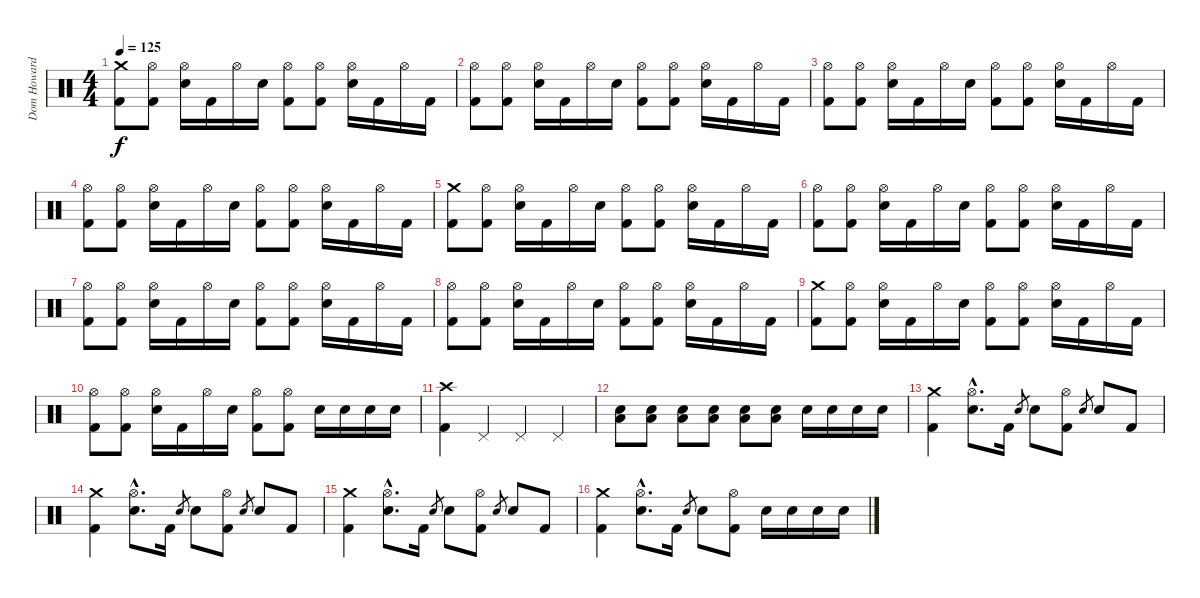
\track ("Dom Howard" "Dom Howard") {instrument percussion}
\staff {score}
\articulation defaults
\ts (4 4)
\tempo 125
\clef neutral
\ks c
("Crash medium (hit)" "Kick (hit) 2").8{dy f} ("Hi-Hat (open)" "Kick (hit) 2").8 ("Hi-Hat (open)" "Electric Snare (hit)").16 "Kick (hit) 2".16 "Hi-Hat (open)".16 "Electric Snare (hit)".16 ("Hi-Hat (open)" "Kick (hit) 2").8 ("Hi-Hat (open)" "Kick (hit) 2").8 ("Hi-Hat (open)" "Electric Snare (hit)").16 "Kick (hit) 2".16 "Hi-Hat (open)".16 "Kick (hit) 2".16 |
("Hi-Hat (open)" "Kick (hit) 2").8 ("Hi-Hat (open)" "Kick (hit) 2").8 ("Hi-Hat (open)" "Electric Snare (hit)").16 "Kick (hit) 2".16 "Hi-Hat (open)".16 "Electric Snare (hit)".16 ("Hi-Hat (open)" "Kick (hit) 2").8 ("Hi-Hat (open)" "Kick (hit) 2").8 ("Hi-Hat (open)" "Electric Snare (hit)").16 "Kick (hit) 2".16 "Hi-Hat (open)".16 "Kick (hit) 2".16 |
("Hi-Hat (open)" "Kick (hit) 2").8 ("Hi-Hat (open)" "Kick (hit) 2").8 ("Hi-Hat (open)" "Electric Snare (hit)").16 "Kick (hit) 2".16 "Hi-Hat (open)".16 "Electric Snare (hit)".16 ("Hi-Hat (open)" "Kick (hit) 2").8 ("Hi-Hat (open)" "Kick (hit) 2").8 ("Hi-Hat (open)" "Electric Snare (hit)").16 "Kick (hit) 2".16 "Hi-Hat (open)".16 "Kick (hit) 2".16 |
("Hi-Hat (open)" "Kick (hit) 2").8 ("Hi-Hat (open)" "Kick (hit) 2").8 ("Hi-Hat (open)" "Electric Snare (hit)").16 "Kick (hit) 2".16 "Hi-Hat (open)".16 "Electric Snare (hit)".16 ("Hi-Hat (open)" "Kick (hit) 2").8 ("Hi-Hat (open)" "Kick (hit) 2").8 ("Hi-Hat (open)" "Electric Snare (hit)").16 "Kick (hit) 2".16 "Hi-Hat (open)".16 "Kick (hit) 2".16 |
("Crash medium (hit)" "Kick (hit) 2").8 ("Hi-Hat (open)" "Kick (hit) 2").8 ("Hi-Hat (open)" "Electric Snare (hit)").16 "Kick (hit) 2".16 "Hi-Hat (open)".16 "Electric Snare (hit)".16 ("Hi-Hat (open)" "Kick (hit) 2").8 ("Hi-Hat (open)" "Kick (hit) 2").8 ("Hi-Hat (open)" "Electric Snare (hit)").16 "Kick (hit) 2".16 "Hi-Hat (open)".16 "Kick (hit) 2".16 |
("Hi-Hat (open)" "Kick (hit) 2").8 ("Hi-Hat (open)" "Kick (hit) 2").8 ("Hi-Hat (open)" "Electric Snare (hit)").16 "Kick (hit) 2".16 "Hi-Hat (open)".16 "Electric Snare (hit)".16 ("Hi-Hat (open)" "Kick (hit) 2").8 ("Hi-Hat (open)" "Kick (hit) 2").8 ("Hi-Hat (open)" "Electric Snare (hit)").16 "Kick (hit) 2".16 "Hi-Hat (open)".16 "Kick (hit) 2".16 |
("Hi-Hat (open)" "Kick (hit) 2").8 ("Hi-Hat (open)" "Kick (hit) 2").8 ("Hi-Hat (open)" "Electric Snare (hit)").16 "Kick (hit) 2".16 "Hi-Hat (open)".16 "Electric Snare (hit)".16 ("Hi-Hat (open)" "Kick (hit) 2").8 ("Hi-Hat (open)" "Kick (hit) 2").8 ("Hi-Hat (open)" "Electric Snare (hit)").16 "Kick (hit) 2".16 "Hi-Hat (open)".16 "Kick (hit) 2".16 |
("Hi-Hat (open)" "Kick (hit) 2").8 ("Hi-Hat (open)" "Kick (hit) 2").8 ("Hi-Hat (open)" "Electric Snare (hit)").16 "Kick (hit) 2".16 "Hi-Hat (open)".16 "Electric Snare (hit)".16 ("Hi-Hat (open)" "Kick (hit) 2").8 ("Hi-Hat (open)" "Kick (hit) 2").8 ("Hi-Hat (open)" "Electric Snare (hit)").16 "Kick (hit) 2".16 "Hi-Hat (open)".16 "Kick (hit) 2".16 |
("Crash medium (hit)" "Kick (hit) 2").8 ("Hi-Hat (open)" "Kick (hit) 2").8 ("Hi-Hat (open)" "Electric Snare (hit)").16 "Kick (hit) 2".16 "Hi-Hat (open)".16 "Electric Snare (hit)".16 ("Hi-Hat (open)" "Kick (hit) 2").8 ("Hi-Hat (open)" "Kick (hit) 2").8 ("Hi-Hat (open)" "Electric Snare (hit)").16 "Kick (hit) 2".16 "Hi-Hat (open)".16 "Kick (hit) 2".16 |
("Hi-Hat (open)" "Kick (hit) 2").8 ("Hi-Hat (open)" "Kick (hit) 2").8 ("Hi-Hat (open)" "Electric Snare (hit)").16 "Kick (hit) 2".16 "Hi-Hat (open)".16 "Electric Snare (hit)".16 ("Hi-Hat (open)" "Kick (hit) 2").8 ("Hi-Hat (open)" "Kick (hit) 2").8 "Electric Snare (hit)".16 "Electric Snare (hit)".16 "Electric Snare (hit)".16 "Electric Snare (hit)".16 |
("Crash high (hit)" "Kick (hit) 2").4 "Pedal Hi-Hat (hit)".4 "Pedal Hi-Hat (hit)".4 "Pedal Hi-Hat (hit)".4 |
("Low Floor Tom (hit)" "Electric Snare (hit)").8 ("Low Floor Tom (hit)" "Electric Snare (hit)").8 ("Low Floor Tom (hit)" "Electric Snare (hit)").8 ("Low Floor Tom (hit)" "Electric Snare (hit)").8 ("Low Floor Tom (hit)" "Electric Snare (hit)").8 ("Low Floor Tom (hit)" "Electric Snare (hit)").8 "Electric Snare (hit)".16 "Electric Snare (hit)".16 "Electric Snare (hit)".16 "Electric Snare (hit)".16 |
("Crash medium (hit)" "Kick (hit) 2").4 ("Hi-Hat (open)"{hac} "Electric Snare (hit)"{hac}).8{d} "Kick (hit) 2".16 "Electric Snare (hit)".8{gr} "Electric Snare (hit)".8 ("Hi-Hat (open)" "Kick (hit) 2").8 "Electric Snare (hit)".8{gr} "Electric Snare (hit)".8 "Kick (hit) 2".8 |
("Crash medium (hit)" "Kick (hit) 2").4 ("Hi-Hat (open)"{hac} "Electric Snare (hit)"{hac}).8{d} "Kick (hit) 2".16 "Electric Snare (hit)".8{gr} "Electric Snare (hit)".8 ("Hi-Hat (open)" "Kick (hit) 2").8 "Electric Snare (hit)".8{gr} "Electric Snare (hit)".8 "Kick (hit) 2".8 |
("Crash medium (hit)" "Kick (hit) 2").4 ("Hi-Hat (open)"{hac} "Electric Snare (hit)"{hac}).8{d} "Kick (hit) 2".16 "Electric Snare (hit)".8{gr} "Electric Snare (hit)".8 ("Hi-Hat (open)" "Kick (hit) 2").8 "Electric Snare (hit)".8{gr} "Electric Snare (hit)".8 "Kick (hit) 2".8 |
("Crash medium (hit)" "Kick (hit) 2").4 ("Hi-Hat (open)"{hac} "Electric Snare (hit)"{hac}).8{d} "Kick (hit) 2".16 "Electric Snare (hit)".8{gr} "Electric Snare (hit)".8 ("Hi-Hat (open)" "Kick (hit) 2").8 "Electric Snare (hit)".16 "Electric Snare (hit)".16 "Electric Snare (hit)".16 "Electric Snare (hit)".16
